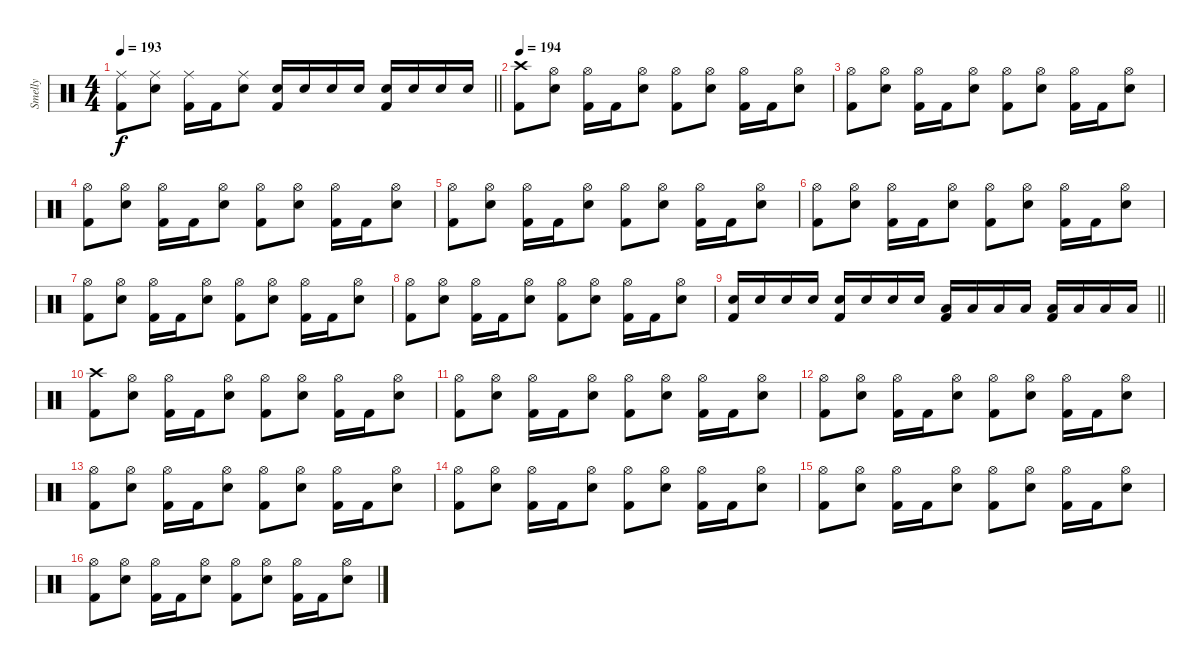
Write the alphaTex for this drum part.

\track ("Smelly" "Smelly") {instrument percussion}
\staff {score}
\articulation defaults
\ts (4 4)
\tempo 193
\clef neutral
\barLineRight lightlight
\ks c
("Ride (middle)" "Kick (hit) 2").8{dy f} ("Ride (middle)" "Electric Snare (hit)").8 ("Ride (middle)" "Kick (hit) 2").16 "Kick (hit) 2".16 ("Ride (middle)" "Electric Snare (hit)").8 ("Electric Snare (hit)" "Kick (hit) 2").16 "Electric Snare (hit)".16 "Electric Snare (hit)".16 "Electric Snare (hit)".16 ("Electric Snare (hit)" "Kick (hit) 2").16 "Electric Snare (hit)".16 "Electric Snare (hit)".16 "Electric Snare (hit)".16 |
\section ("" "")
\tempo 194
("Crash high (hit)" "Kick (hit) 2").8 ("Hi-Hat (open)" "Electric Snare (hit)").8 ("Hi-Hat (open)" "Kick (hit) 2").16 "Kick (hit) 2".16 ("Hi-Hat (open)" "Electric Snare (hit)").8 ("Hi-Hat (open)" "Kick (hit) 2").8 ("Hi-Hat (open)" "Electric Snare (hit)").8 ("Hi-Hat (open)" "Kick (hit) 2").16 "Kick (hit) 2".16 ("Hi-Hat (open)" "Electric Snare (hit)").8 |
("Hi-Hat (open)" "Kick (hit) 2").8 ("Hi-Hat (open)" "Electric Snare (hit)").8 ("Hi-Hat (open)" "Kick (hit) 2").16 "Kick (hit) 2".16 ("Hi-Hat (open)" "Electric Snare (hit)").8 ("Hi-Hat (open)" "Kick (hit) 2").8 ("Hi-Hat (open)" "Electric Snare (hit)").8 ("Hi-Hat (open)" "Kick (hit) 2").16 "Kick (hit) 2".16 ("Hi-Hat (open)" "Electric Snare (hit)").8 |
("Hi-Hat (open)" "Kick (hit) 2").8 ("Hi-Hat (open)" "Electric Snare (hit)").8 ("Hi-Hat (open)" "Kick (hit) 2").16 "Kick (hit) 2".16 ("Hi-Hat (open)" "Electric Snare (hit)").8 ("Hi-Hat (open)" "Kick (hit) 2").8 ("Hi-Hat (open)" "Electric Snare (hit)").8 ("Hi-Hat (open)" "Kick (hit) 2").16 "Kick (hit) 2".16 ("Hi-Hat (open)" "Electric Snare (hit)").8 |
("Hi-Hat (open)" "Kick (hit) 2").8 ("Hi-Hat (open)" "Electric Snare (hit)").8 ("Hi-Hat (open)" "Kick (hit) 2").16 "Kick (hit) 2".16 ("Hi-Hat (open)" "Electric Snare (hit)").8 ("Hi-Hat (open)" "Kick (hit) 2").8 ("Hi-Hat (open)" "Electric Snare (hit)").8 ("Hi-Hat (open)" "Kick (hit) 2").16 "Kick (hit) 2".16 ("Hi-Hat (open)" "Electric Snare (hit)").8 |
("Hi-Hat (open)" "Kick (hit) 2").8 ("Hi-Hat (open)" "Electric Snare (hit)").8 ("Hi-Hat (open)" "Kick (hit) 2").16 "Kick (hit) 2".16 ("Hi-Hat (open)" "Electric Snare (hit)").8 ("Hi-Hat (open)" "Kick (hit) 2").8 ("Hi-Hat (open)" "Electric Snare (hit)").8 ("Hi-Hat (open)" "Kick (hit) 2").16 "Kick (hit) 2".16 ("Hi-Hat (open)" "Electric Snare (hit)").8 |
("Hi-Hat (open)" "Kick (hit) 2").8 ("Hi-Hat (open)" "Electric Snare (hit)").8 ("Hi-Hat (open)" "Kick (hit) 2").16 "Kick (hit) 2".16 ("Hi-Hat (open)" "Electric Snare (hit)").8 ("Hi-Hat (open)" "Kick (hit) 2").8 ("Hi-Hat (open)" "Electric Snare (hit)").8 ("Hi-Hat (open)" "Kick (hit) 2").16 "Kick (hit) 2".16 ("Hi-Hat (open)" "Electric Snare (hit)").8 |
("Hi-Hat (open)" "Kick (hit) 2").8 ("Hi-Hat (open)" "Electric Snare (hit)").8 ("Hi-Hat (open)" "Kick (hit) 2").16 "Kick (hit) 2".16 ("Hi-Hat (open)" "Electric Snare (hit)").8 ("Hi-Hat (open)" "Kick (hit) 2").8 ("Hi-Hat (open)" "Electric Snare (hit)").8 ("Hi-Hat (open)" "Kick (hit) 2").16 "Kick (hit) 2".16 ("Hi-Hat (open)" "Electric Snare (hit)").8 |
\barLineRight lightlight
("Electric Snare (hit)" "Kick (hit) 2").16 "Electric Snare (hit)".16 "Electric Snare (hit)".16 "Electric Snare (hit)".16 ("Electric Snare (hit)" "Kick (hit) 2").16 "Electric Snare (hit)".16 "Electric Snare (hit)".16 "Electric Snare (hit)".16 ("Low Tom (hit)" "Kick (hit) 2").16 "Low Tom (hit)".16 "Low Tom (hit)".16 "Low Tom (hit)".16 ("Low Floor Tom (hit)" "Kick (hit) 2").16 "Low Floor Tom (hit)".16 "Low Floor Tom (hit)".16 "Low Floor Tom (hit)".16 |
\section ("" "")
("Crash high (hit)" "Kick (hit) 2").8 ("Hi-Hat (open)" "Electric Snare (hit)").8 ("Hi-Hat (open)" "Kick (hit) 2").16 "Kick (hit) 2".16 ("Hi-Hat (open)" "Electric Snare (hit)").8 ("Hi-Hat (open)" "Kick (hit) 2").8 ("Hi-Hat (open)" "Electric Snare (hit)").8 ("Hi-Hat (open)" "Kick (hit) 2").16 "Kick (hit) 2".16 ("Hi-Hat (open)" "Electric Snare (hit)").8 |
("Hi-Hat (open)" "Kick (hit) 2").8 ("Hi-Hat (open)" "Electric Snare (hit)").8 ("Hi-Hat (open)" "Kick (hit) 2").16 "Kick (hit) 2".16 ("Hi-Hat (open)" "Electric Snare (hit)").8 ("Hi-Hat (open)" "Kick (hit) 2").8 ("Hi-Hat (open)" "Electric Snare (hit)").8 ("Hi-Hat (open)" "Kick (hit) 2").16 "Kick (hit) 2".16 ("Hi-Hat (open)" "Electric Snare (hit)").8 |
("Hi-Hat (open)" "Kick (hit) 2").8 ("Hi-Hat (open)" "Electric Snare (hit)").8 ("Hi-Hat (open)" "Kick (hit) 2").16 "Kick (hit) 2".16 ("Hi-Hat (open)" "Electric Snare (hit)").8 ("Hi-Hat (open)" "Kick (hit) 2").8 ("Hi-Hat (open)" "Electric Snare (hit)").8 ("Hi-Hat (open)" "Kick (hit) 2").16 "Kick (hit) 2".16 ("Hi-Hat (open)" "Electric Snare (hit)").8 |
("Hi-Hat (open)" "Kick (hit) 2").8 ("Hi-Hat (open)" "Electric Snare (hit)").8 ("Hi-Hat (open)" "Kick (hit) 2").16 "Kick (hit) 2".16 ("Hi-Hat (open)" "Electric Snare (hit)").8 ("Hi-Hat (open)" "Kick (hit) 2").8 ("Hi-Hat (open)" "Electric Snare (hit)").8 ("Hi-Hat (open)" "Kick (hit) 2").16 "Kick (hit) 2".16 ("Hi-Hat (open)" "Electric Snare (hit)").8 |
("Hi-Hat (open)" "Kick (hit) 2").8 ("Hi-Hat (open)" "Electric Snare (hit)").8 ("Hi-Hat (open)" "Kick (hit) 2").16 "Kick (hit) 2".16 ("Hi-Hat (open)" "Electric Snare (hit)").8 ("Hi-Hat (open)" "Kick (hit) 2").8 ("Hi-Hat (open)" "Electric Snare (hit)").8 ("Hi-Hat (open)" "Kick (hit) 2").16 "Kick (hit) 2".16 ("Hi-Hat (open)" "Electric Snare (hit)").8 |
("Hi-Hat (open)" "Kick (hit) 2").8 ("Hi-Hat (open)" "Electric Snare (hit)").8 ("Hi-Hat (open)" "Kick (hit) 2").16 "Kick (hit) 2".16 ("Hi-Hat (open)" "Electric Snare (hit)").8 ("Hi-Hat (open)" "Kick (hit) 2").8 ("Hi-Hat (open)" "Electric Snare (hit)").8 ("Hi-Hat (open)" "Kick (hit) 2").16 "Kick (hit) 2".16 ("Hi-Hat (open)" "Electric Snare (hit)").8 |
("Hi-Hat (open)" "Kick (hit) 2").8 ("Hi-Hat (open)" "Electric Snare (hit)").8 ("Hi-Hat (open)" "Kick (hit) 2").16 "Kick (hit) 2".16 ("Hi-Hat (open)" "Electric Snare (hit)").8 ("Hi-Hat (open)" "Kick (hit) 2").8 ("Hi-Hat (open)" "Electric Snare (hit)").8 ("Hi-Hat (open)" "Kick (hit) 2").16 "Kick (hit) 2".16 ("Hi-Hat (open)" "Electric Snare (hit)").8
